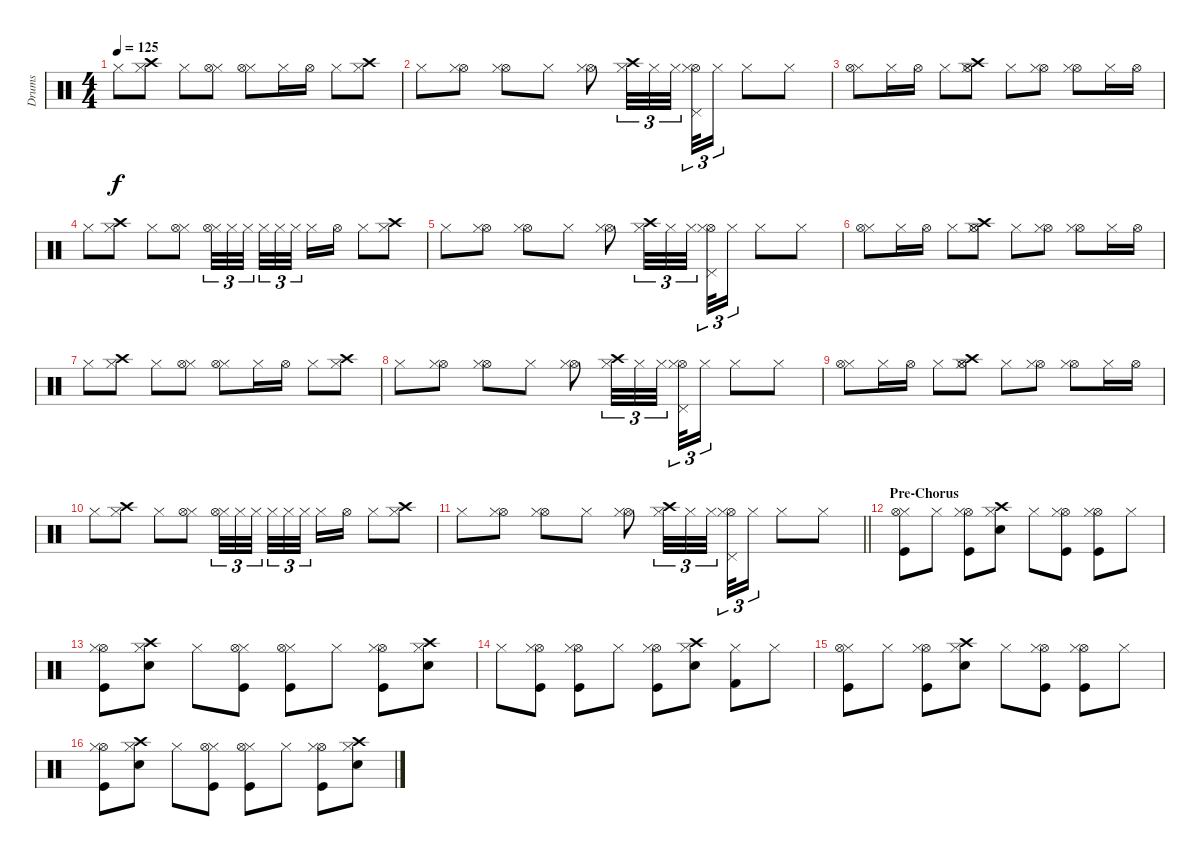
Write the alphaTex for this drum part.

\track ("Drums" "Drums") {instrument percussion}
\staff {score}
\articulation defaults
\ts (4 4)
\tempo 125
\clef neutral
\ks c "Hi-Hat (closed)".8{dy f}
("Crash high (hit)" "Hi-Hat (closed)").8 "Hi-Hat (closed)".8 ("Hi-Hat (closed)" "Hi-Hat (open)").8 ("Hi-Hat (closed)" "Hi-Hat (open)").8 "Hi-Hat (closed)".16 "Hi-Hat (open)".16 "Hi-Hat (closed)".8 ("Crash high (hit)" "Hi-Hat (closed)").8 |
"Hi-Hat (closed)".8 ("Hi-Hat (open)" "Hi-Hat (closed)").8 ("Hi-Hat (open)" "Hi-Hat (closed)").8 "Hi-Hat (closed)".8 ("Hi-Hat (open)" "Hi-Hat (closed)").8 ("Crash high (hit)" "Hi-Hat (closed)").32{tu (3 2)} "Hi-Hat (closed)".32{tu (3 2)} "Hi-Hat (closed)".32{tu (3 2) beam splitsecondary} ("Hi-Hat (open)" "Hi-Hat (closed)" "Pedal Hi-Hat (hit)").32{tu (3 2)} "Hi-Hat (closed)".16{tu (3 2)} "Hi-Hat (closed)".8 "Hi-Hat (closed)".8 |
("Hi-Hat (closed)" "Hi-Hat (open)").8 "Hi-Hat (closed)".16 "Hi-Hat (open)".16 "Hi-Hat (closed)".8 ("Crash high (hit)" "Hi-Hat (closed)" "Hi-Hat (open)").8 "Hi-Hat (closed)".8 ("Hi-Hat (open)" "Hi-Hat (closed)").8 ("Hi-Hat (open)" "Hi-Hat (closed)").8 "Hi-Hat (closed)".16 "Hi-Hat (open)".16 |
"Hi-Hat (closed)".8 ("Crash high (hit)" "Hi-Hat (closed)").8 "Hi-Hat (closed)".8 ("Hi-Hat (closed)" "Hi-Hat (open)").8 ("Hi-Hat (closed)" "Hi-Hat (open)").32{tu (3 2)} "Hi-Hat (closed)".32{tu (3 2)} "Hi-Hat (closed)".32{tu (3 2) beam splitsecondary} "Hi-Hat (closed)".32{tu (3 2)} "Hi-Hat (closed)".32{tu (3 2)} "Hi-Hat (closed)".32{tu (3 2) beam splitsecondary} "Hi-Hat (closed)".16 "Hi-Hat (open)".16 "Hi-Hat (closed)".8 ("Crash high (hit)" "Hi-Hat (closed)").8 |
"Hi-Hat (closed)".8 ("Hi-Hat (open)" "Hi-Hat (closed)").8 ("Hi-Hat (open)" "Hi-Hat (closed)").8 "Hi-Hat (closed)".8 ("Hi-Hat (open)" "Hi-Hat (closed)").8 ("Crash high (hit)" "Hi-Hat (closed)").32{tu (3 2)} "Hi-Hat (closed)".32{tu (3 2)} "Hi-Hat (closed)".32{tu (3 2) beam splitsecondary} ("Hi-Hat (open)" "Hi-Hat (closed)" "Pedal Hi-Hat (hit)").32{tu (3 2)} "Hi-Hat (closed)".16{tu (3 2)} "Hi-Hat (closed)".8 "Hi-Hat (closed)".8 |
("Hi-Hat (closed)" "Hi-Hat (open)").8 "Hi-Hat (closed)".16 "Hi-Hat (open)".16 "Hi-Hat (closed)".8 ("Crash high (hit)" "Hi-Hat (closed)" "Hi-Hat (open)").8 "Hi-Hat (closed)".8 ("Hi-Hat (open)" "Hi-Hat (closed)").8 ("Hi-Hat (open)" "Hi-Hat (closed)").8 "Hi-Hat (closed)".16 "Hi-Hat (open)".16 |
"Hi-Hat (closed)".8 ("Crash high (hit)" "Hi-Hat (closed)").8 "Hi-Hat (closed)".8 ("Hi-Hat (closed)" "Hi-Hat (open)").8 ("Hi-Hat (closed)" "Hi-Hat (open)").8 "Hi-Hat (closed)".16 "Hi-Hat (open)".16 "Hi-Hat (closed)".8 ("Crash high (hit)" "Hi-Hat (closed)").8 |
"Hi-Hat (closed)".8 ("Hi-Hat (open)" "Hi-Hat (closed)").8 ("Hi-Hat (open)" "Hi-Hat (closed)").8 "Hi-Hat (closed)".8 ("Hi-Hat (open)" "Hi-Hat (closed)").8 ("Crash high (hit)" "Hi-Hat (closed)").32{tu (3 2)} "Hi-Hat (closed)".32{tu (3 2)} "Hi-Hat (closed)".32{tu (3 2) beam splitsecondary} ("Hi-Hat (open)" "Hi-Hat (closed)" "Pedal Hi-Hat (hit)").32{tu (3 2)} "Hi-Hat (closed)".16{tu (3 2)} "Hi-Hat (closed)".8 "Hi-Hat (closed)".8 |
("Hi-Hat (closed)" "Hi-Hat (open)").8 "Hi-Hat (closed)".16 "Hi-Hat (open)".16 "Hi-Hat (closed)".8 ("Crash high (hit)" "Hi-Hat (closed)" "Hi-Hat (open)").8 "Hi-Hat (closed)".8 ("Hi-Hat (open)" "Hi-Hat (closed)").8 ("Hi-Hat (open)" "Hi-Hat (closed)").8 "Hi-Hat (closed)".16 "Hi-Hat (open)".16 |
"Hi-Hat (closed)".8 ("Crash high (hit)" "Hi-Hat (closed)").8 "Hi-Hat (closed)".8 ("Hi-Hat (closed)" "Hi-Hat (open)").8 ("Hi-Hat (closed)" "Hi-Hat (open)").32{tu (3 2)} "Hi-Hat (closed)".32{tu (3 2)} "Hi-Hat (closed)".32{tu (3 2) beam splitsecondary} "Hi-Hat (closed)".32{tu (3 2)} "Hi-Hat (closed)".32{tu (3 2)} "Hi-Hat (closed)".32{tu (3 2) beam splitsecondary} "Hi-Hat (closed)".16 "Hi-Hat (open)".16 "Hi-Hat (closed)".8 ("Crash high (hit)" "Hi-Hat (closed)").8 |
\barLineRight lightlight "Hi-Hat (closed)".8
("Hi-Hat (open)" "Hi-Hat (closed)").8 ("Hi-Hat (open)" "Hi-Hat (closed)").8 "Hi-Hat (closed)".8 ("Hi-Hat (open)" "Hi-Hat (closed)").8 ("Crash high (hit)" "Hi-Hat (closed)").32{tu (3 2)} "Hi-Hat (closed)".32{tu (3 2)} "Hi-Hat (closed)".32{tu (3 2) beam splitsecondary} ("Hi-Hat (open)" "Hi-Hat (closed)" "Pedal Hi-Hat (hit)").32{tu (3 2)} "Hi-Hat (closed)".16{tu (3 2)} "Hi-Hat (closed)".8 "Hi-Hat (closed)".8 |
\section ("" "Pre-Chorus")
("Hi-Hat (closed)" "Hi-Hat (open)" "Kick (hit)").8 "Hi-Hat (closed)".8 ("Hi-Hat (open)" "Kick (hit)" "Hi-Hat (closed)").8 ("Electric Snare (hit)" "Crash high (hit)" "Hi-Hat (closed)").8 "Hi-Hat (closed)".8 ("Kick (hit)" "Hi-Hat (open)" "Hi-Hat (closed)").8 ("Hi-Hat (open)" "Kick (hit)" "Hi-Hat (closed)").8 "Hi-Hat (closed)".8 |
("Hi-Hat (open)" "Kick (hit)" "Hi-Hat (closed)").8 ("Crash high (hit)" "Electric Snare (hit)" "Hi-Hat (closed)").8 "Hi-Hat (closed)".8 ("Kick (hit)" "Hi-Hat (closed)" "Hi-Hat (open)").8 ("Hi-Hat (closed)" "Hi-Hat (open)" "Kick (hit)").8 "Hi-Hat (closed)".8 ("Hi-Hat (open)" "Kick (hit)" "Hi-Hat (closed)").8 ("Crash high (hit)" "Hi-Hat (closed)" "Electric Snare (hit)").8 |
"Hi-Hat (closed)".8 ("Kick (hit)" "Hi-Hat (open)" "Hi-Hat (closed)").8 ("Hi-Hat (open)" "Kick (hit)" "Hi-Hat (closed)").8 "Hi-Hat (closed)".8 ("Kick (hit)" "Hi-Hat (open)" "Hi-Hat (closed)").8 ("Electric Snare (hit)" "Crash high (hit)" "Hi-Hat (closed)").8 ("Kick (hit) 2" "Hi-Hat (closed)").8 "Hi-Hat (closed)".8 |
("Hi-Hat (closed)" "Hi-Hat (open)" "Kick (hit)").8 "Hi-Hat (closed)".8 ("Hi-Hat (open)" "Kick (hit)" "Hi-Hat (closed)").8 ("Electric Snare (hit)" "Crash high (hit)" "Hi-Hat (closed)").8 "Hi-Hat (closed)".8 ("Kick (hit)" "Hi-Hat (open)" "Hi-Hat (closed)").8 ("Hi-Hat (open)" "Kick (hit)" "Hi-Hat (closed)").8 "Hi-Hat (closed)".8 |
("Hi-Hat (open)" "Kick (hit)" "Hi-Hat (closed)").8 ("Crash high (hit)" "Electric Snare (hit)" "Hi-Hat (closed)").8 "Hi-Hat (closed)".8 ("Kick (hit)" "Hi-Hat (closed)" "Hi-Hat (open)").8 ("Hi-Hat (closed)" "Hi-Hat (open)" "Kick (hit)").8 "Hi-Hat (closed)".8 ("Hi-Hat (open)" "Kick (hit)" "Hi-Hat (closed)").8 ("Crash high (hit)" "Hi-Hat (closed)" "Electric Snare (hit)").8
